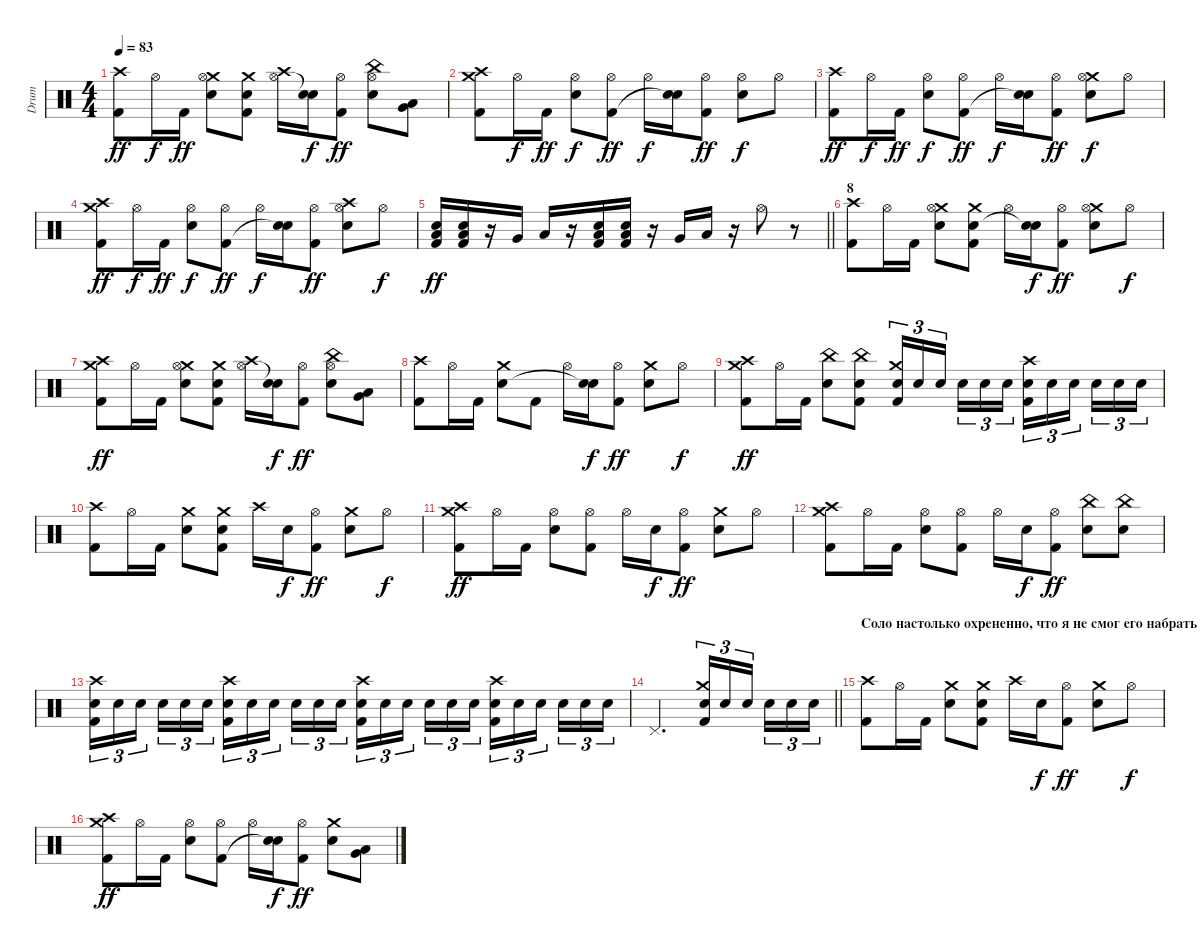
\track ("Drum" "Drum") {instrument percussion}
\staff {score}
\articulation defaults
\ts (4 4)
\tempo 83
\clef neutral
\ks c
("Crash high (hit)" "Kick (hit) 2").8{dy ff} "Hi-Hat (open)".16{dy f} "Kick (hit) 2".16{dy ff} ("Crash medium (hit)" "Electric Snare (hit)" "Hi-Hat (open)").8 ("Crash medium (hit)" "Electric Snare (hit)" "Kick (hit) 2").8 ("Crash high (hit)" "Hi-Hat (open)").16 ("Electric Snare (hit)" "Snare (hit)"{t}).16{dy f} ("Hi-Hat (open)" "Kick (hit) 2").8{dy ff} ("China (hit)" "Electric Snare (hit)" "Hi-Hat (open)").8 ("Very Low Tom (hit)" "Low Floor Tom (hit)").8 |
("Crash high (hit)" "Crash medium (hit)" "Kick (hit) 2").8 "Hi-Hat (open)".16{dy f} "Kick (hit) 2".16{dy ff} ("Electric Snare (hit)" "Hi-Hat (open)").8{dy f} ("Hi-Hat (open)" "Kick (hit) 2").8{dy ff} "Hi-Hat (open)".16{dy f} ("Electric Snare (hit)" "Snare (hit)"{t}).16 ("Hi-Hat (open)" "Kick (hit) 2").8{dy ff} ("Electric Snare (hit)" "Hi-Hat (open)").8{dy f} "Hi-Hat (open)".8 |
("Crash high (hit)" "Kick (hit) 2").8{dy ff} "Hi-Hat (open)".16{dy f} "Kick (hit) 2".16{dy ff} ("Electric Snare (hit)" "Hi-Hat (open)").8{dy f} ("Hi-Hat (open)" "Kick (hit) 2").8{dy ff} "Hi-Hat (open)".16{dy f} ("Electric Snare (hit)" "Snare (hit)"{t}).16 ("Hi-Hat (open)" "Kick (hit) 2").8{dy ff} ("Crash medium (hit)" "Electric Snare (hit)" "Hi-Hat (open)").8{dy f} "Hi-Hat (open)".8 |
("Crash high (hit)" "Crash medium (hit)" "Kick (hit) 2").8{dy ff} "Hi-Hat (open)".16{dy f} "Kick (hit) 2".16{dy ff} ("Electric Snare (hit)" "Hi-Hat (open)").8{dy f} ("Hi-Hat (open)" "Kick (hit) 2").8{dy ff} "Hi-Hat (open)".16{dy f} ("Electric Snare (hit)" "Snare (hit)"{t}).16 ("Hi-Hat (open)" "Kick (hit) 2").8{dy ff} ("Crash high (hit)" "Electric Snare (hit)" "Hi-Hat (open)").8 "Hi-Hat (open)".8{dy f} |
\barLineRight lightlight
("Low Floor Tom (hit)" "Electric Snare (hit)" "Kick (hit) 2").16{dy ff} ("Low Floor Tom (hit)" "Electric Snare (hit)" "Kick (hit) 2").16 r.16 "Very Low Tom (hit)".16 "Low Floor Tom (hit)".16 r.16 ("Low Floor Tom (hit)" "Electric Snare (hit)" "Kick (hit) 2").16 ("Low Floor Tom (hit)" "Electric Snare (hit)" "Kick (hit) 2").16 r.16 "Very Low Tom (hit)".16 "Low Floor Tom (hit)".16 r.16 "Hi-Hat (open)".8 r.8 |
\section ("" "8")
("Crash high (hit)" "Kick (hit) 2").8 "Hi-Hat (open)".16 "Kick (hit) 2".16 ("Crash medium (hit)" "Electric Snare (hit)" "Hi-Hat (open)").8 ("Crash medium (hit)" "Electric Snare (hit)" "Kick (hit) 2").8 "Hi-Hat (open)".16 ("Electric Snare (hit)" "Snare (hit)"{t}).16{dy f} ("Hi-Hat (open)" "Kick (hit) 2").8{dy ff} ("Crash medium (hit)" "Electric Snare (hit)" "Hi-Hat (open)").8 "Hi-Hat (open)".8{dy f} |
("Crash high (hit)" "Crash medium (hit)" "Kick (hit) 2").8{dy ff} "Hi-Hat (open)".16 "Kick (hit) 2".16 ("Crash medium (hit)" "Electric Snare (hit)" "Hi-Hat (open)").8 ("Crash medium (hit)" "Electric Snare (hit)" "Kick (hit) 2").8 ("Crash high (hit)" "Hi-Hat (open)").16 ("Electric Snare (hit)" "Snare (hit)"{t}).16{dy f} ("Hi-Hat (open)" "Kick (hit) 2").8{dy ff} ("China (hit)" "Electric Snare (hit)" "Hi-Hat (open)").8 ("Very Low Tom (hit)" "Low Floor Tom (hit)").8 |
("Crash high (hit)" "Kick (hit) 2").8 "Hi-Hat (open)".16 "Kick (hit) 2".16 ("Crash medium (hit)" "Electric Snare (hit)").8 "Kick (hit) 2".8 "Hi-Hat (open)".16 ("Electric Snare (hit)" "Snare (hit)"{t}).16{dy f} ("Hi-Hat (open)" "Kick (hit) 2").8{dy ff} ("Crash medium (hit)" "Electric Snare (hit)").8 "Hi-Hat (open)".8{dy f} |
("Crash high (hit)" "Crash medium (hit)" "Kick (hit) 2").8{dy ff} "Hi-Hat (open)".16 "Kick (hit) 2".16 ("China (hit)" "Electric Snare (hit)").8 ("China (hit)" "Electric Snare (hit)" "Kick (hit) 2").8 ("Crash medium (hit)" "Electric Snare (hit)" "Kick (hit) 2").16{tu (3 2)} "Electric Snare (hit)".16{tu (3 2)} "Electric Snare (hit)".16{tu (3 2) beam splitsecondary} "Electric Snare (hit)".16{tu (3 2)} "Electric Snare (hit)".16{tu (3 2)} "Electric Snare (hit)".16{tu (3 2)} ("Crash high (hit)" "Electric Snare (hit)" "Kick (hit) 2").16{tu (3 2)} "Electric Snare (hit)".16{tu (3 2)} "Electric Snare (hit)".16{tu (3 2) beam splitsecondary} "Electric Snare (hit)".16{tu (3 2)} "Electric Snare (hit)".16{tu (3 2)} "Electric Snare (hit)".16{tu (3 2)} |
("Crash high (hit)" "Kick (hit) 2").8 "Hi-Hat (open)".16 "Kick (hit) 2".16 ("Crash medium (hit)" "Electric Snare (hit)").8 ("Crash medium (hit)" "Electric Snare (hit)" "Kick (hit) 2").8 "Crash high (hit)".16 "Electric Snare (hit)".16{dy f} ("Hi-Hat (open)" "Kick (hit) 2").8{dy ff} ("Crash medium (hit)" "Electric Snare (hit)").8 "Hi-Hat (open)".8{dy f} |
("Crash high (hit)" "Crash medium (hit)" "Kick (hit) 2").8{dy ff} "Hi-Hat (open)".16 "Kick (hit) 2".16 ("Electric Snare (hit)" "Hi-Hat (open)").8 ("Hi-Hat (open)" "Kick (hit) 2").8 "Hi-Hat (open)".16 "Electric Snare (hit)".16{dy f} ("Hi-Hat (open)" "Kick (hit) 2").8{dy ff} ("Crash medium (hit)" "Electric Snare (hit)").8 "Hi-Hat (open)".8 |
("Crash high (hit)" "Crash medium (hit)" "Kick (hit) 2").8 "Hi-Hat (open)".16 "Kick (hit) 2".16 ("Electric Snare (hit)" "Hi-Hat (open)").8 ("Hi-Hat (open)" "Kick (hit) 2").8 "Hi-Hat (open)".16 "Electric Snare (hit)".16{dy f} ("Hi-Hat (open)" "Kick (hit) 2").8{dy ff} ("China (hit)" "Electric Snare (hit)").8 ("China (hit)" "Electric Snare (hit)").8 |
("Crash high (hit)" "Electric Snare (hit)" "Kick (hit) 2").16{tu (3 2)} "Electric Snare (hit)".16{tu (3 2)} "Electric Snare (hit)".16{tu (3 2) beam splitsecondary} "Electric Snare (hit)".16{tu (3 2)} "Electric Snare (hit)".16{tu (3 2)} "Electric Snare (hit)".16{tu (3 2)} ("Crash high (hit)" "Electric Snare (hit)" "Kick (hit) 2").16{tu (3 2)} "Electric Snare (hit)".16{tu (3 2)} "Electric Snare (hit)".16{tu (3 2) beam splitsecondary} "Electric Snare (hit)".16{tu (3 2)} "Electric Snare (hit)".16{tu (3 2)} "Electric Snare (hit)".16{tu (3 2)} ("Crash high (hit)" "Electric Snare (hit)" "Kick (hit) 2").16{tu (3 2)} "Electric Snare (hit)".16{tu (3 2)} "Electric Snare (hit)".16{tu (3 2) beam splitsecondary} "Electric Snare (hit)".16{tu (3 2)} "Electric Snare (hit)".16{tu (3 2)} "Electric Snare (hit)".16{tu (3 2)} ("Crash high (hit)" "Electric Snare (hit)" "Kick (hit) 2").16{tu (3 2)} "Electric Snare (hit)".16{tu (3 2)} "Electric Snare (hit)".16{tu (3 2) beam splitsecondary} "Electric Snare (hit)".16{tu (3 2)} "Electric Snare (hit)".16{tu (3 2)} "Electric Snare (hit)".16{tu (3 2)} |
\barLineRight lightlight "Pedal Hi-Hat (hit)".2{d}
("Crash medium (hit)" "Electric Snare (hit)" "Kick (hit) 2").16{tu (3 2)} "Electric Snare (hit)".16{tu (3 2)} "Electric Snare (hit)".16{tu (3 2) beam splitsecondary} "Electric Snare (hit)".16{tu (3 2)} "Electric Snare (hit)".16{tu (3 2)} "Electric Snare (hit)".16{tu (3 2)} |
\section ("" "Соло настолько охрененно, что я не смог его набрать x)")
("Crash high (hit)" "Kick (hit) 2").8 "Hi-Hat (open)".16 "Kick (hit) 2".16 ("Crash medium (hit)" "Electric Snare (hit)").8 ("Crash medium (hit)" "Electric Snare (hit)" "Kick (hit) 2").8 "Crash high (hit)".16 "Electric Snare (hit)".16{dy f} ("Hi-Hat (open)" "Kick (hit) 2").8{dy ff} ("Crash medium (hit)" "Electric Snare (hit)").8 "Hi-Hat (open)".8{dy f} |
("Crash high (hit)" "Crash medium (hit)" "Kick (hit) 2").8{dy ff} "Hi-Hat (open)".16 "Kick (hit) 2".16 ("Electric Snare (hit)" "Hi-Hat (open)").8 ("Hi-Hat (open)" "Kick (hit) 2").8 "Hi-Hat (open)".16 ("Electric Snare (hit)" "Snare (hit)"{t}).16{dy f} ("Hi-Hat (open)" "Kick (hit) 2").8{dy ff} ("Crash medium (hit)" "Electric Snare (hit)").8 ("Very Low Tom (hit)" "Low Floor Tom (hit)").8
